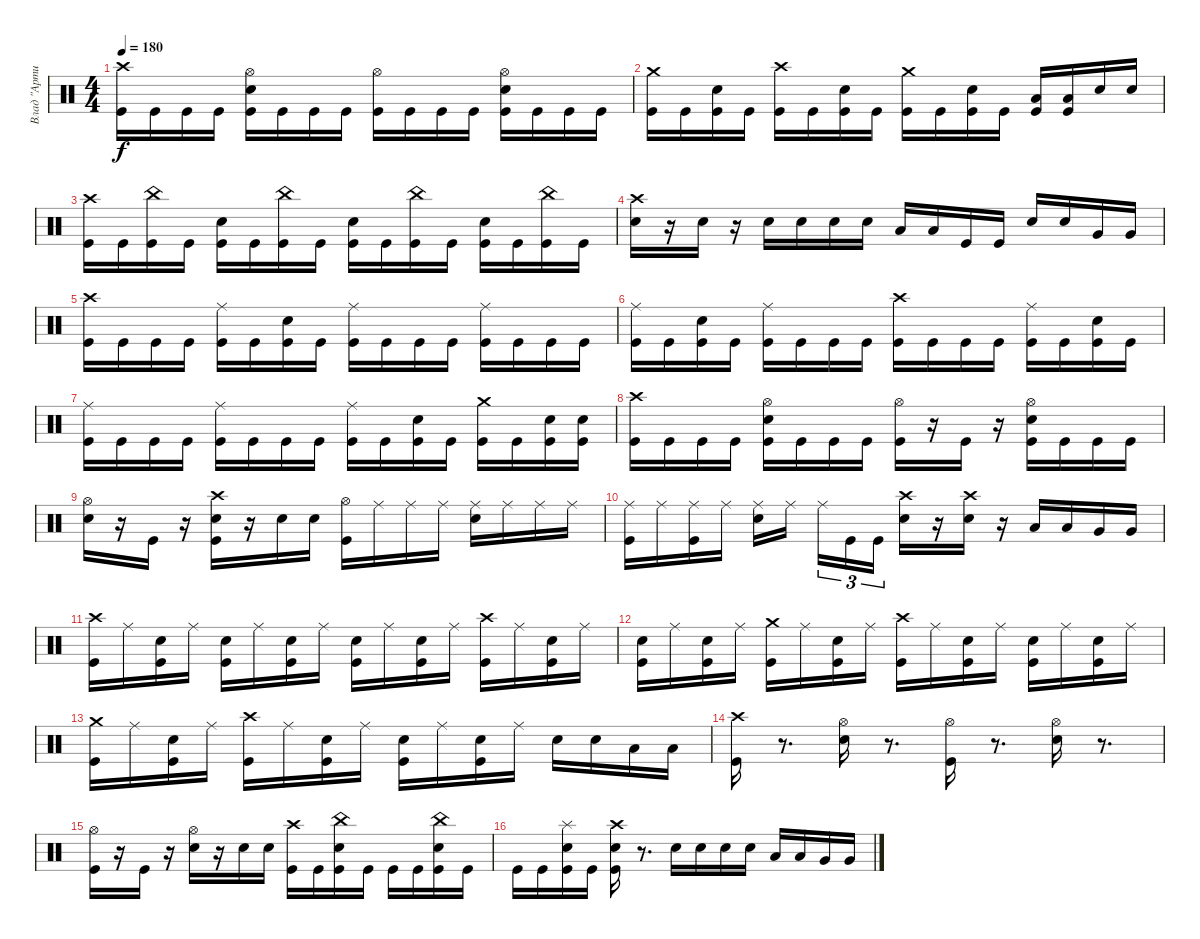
\track ("Влад \"Артист\"" "Влад \"Арти") {instrument percussion}
\staff {score}
\articulation defaults
\ts (4 4)
\tempo 180
\clef neutral
\ks c
("Crash high (hit)" "Kick (hit)").16{dy f} "Kick (hit)".16 "Kick (hit)".16 "Kick (hit)".16 ("Snare (hit) 2" "Hi-Hat (open)" "Kick (hit)").16 "Kick (hit)".16 "Kick (hit)".16 "Kick (hit)".16 ("Hi-Hat (open)" "Kick (hit)").16 "Kick (hit)".16 "Kick (hit)".16 "Kick (hit)".16 ("Snare (hit) 2" "Hi-Hat (open)" "Kick (hit)").16 "Kick (hit)".16 "Kick (hit)".16 "Kick (hit)".16 |
("Crash medium (hit)" "Kick (hit)").16 "Kick (hit)".16 ("Kick (hit)" "Snare (hit) 2").16 "Kick (hit)".16 ("Kick (hit)" "Crash high (hit)").16 "Kick (hit)".16 ("Kick (hit)" "Snare (hit) 2").16 "Kick (hit)".16 ("Crash medium (hit)" "Kick (hit)").16 "Kick (hit)".16 ("Kick (hit)" "Snare (hit) 2").16 "Kick (hit)".16 ("Low Tom (hit)" "Kick (hit)").16 ("Low Tom (hit)" "Kick (hit)").16 "Snare (hit) 2".16 "Snare (hit) 2".16 |
("Crash high (hit)" "Kick (hit)").16 "Kick (hit)".16 ("Kick (hit)" "China (hit)").16 "Kick (hit)".16 ("Snare (hit) 2" "Kick (hit)").16 "Kick (hit)".16 ("Kick (hit)" "China (hit)").16 "Kick (hit)".16 ("Snare (hit) 2" "Kick (hit)").16 "Kick (hit)".16 ("Kick (hit)" "China (hit)").16 "Kick (hit)".16 ("Snare (hit) 2" "Kick (hit)").16 "Kick (hit)".16 ("China (hit)" "Kick (hit)").16 "Kick (hit)".16 |
("Snare (hit) 2" "Crash high (hit)").16 r.16 "Snare (hit) 2".16 r.16 "Snare (hit) 2".16 "Snare (hit) 2".16 "Snare (hit) 2".16 "Snare (hit) 2".16 "Low Tom (hit)".16 "Low Tom (hit)".16 "Kick (hit)".16 "Kick (hit)".16 "Snare (hit) 2".16 "Snare (hit) 2".16 "Very Low Tom (hit)".16 "Very Low Tom (hit)".16 |
("Crash high (hit)" "Kick (hit)").16 "Kick (hit)".16 "Kick (hit)".16 "Kick (hit)".16 ("Ride (middle)" "Kick (hit)").16 "Kick (hit)".16 ("Kick (hit)" "Snare (hit) 2").16 "Kick (hit)".16 ("Ride (middle)" "Kick (hit)").16 "Kick (hit)".16 "Kick (hit)".16 "Kick (hit)".16 ("Ride (middle)" "Kick (hit)").16 "Kick (hit)".16 "Kick (hit)".16 "Kick (hit)".16 |
("Kick (hit)" "Ride (middle)").16 "Kick (hit)".16 ("Kick (hit)" "Snare (hit) 2").16 "Kick (hit)".16 ("Kick (hit)" "Ride (middle)").16 "Kick (hit)".16 "Kick (hit)".16 "Kick (hit)".16 ("Crash high (hit)" "Kick (hit)").16 "Kick (hit)".16 "Kick (hit)".16 "Kick (hit)".16 ("Ride (middle)" "Kick (hit)").16 "Kick (hit)".16 ("Kick (hit)" "Snare (hit) 2").16 "Kick (hit)".16 |
("Ride (middle)" "Kick (hit)").16 "Kick (hit)".16 "Kick (hit)".16 "Kick (hit)".16 ("Ride (middle)" "Kick (hit)").16 "Kick (hit)".16 "Kick (hit)".16 "Kick (hit)".16 ("Kick (hit)" "Ride (middle)").16 "Kick (hit)".16 ("Kick (hit)" "Snare (hit) 2").16 "Kick (hit)".16 ("Kick (hit)" "Crash medium (hit)").16 "Kick (hit)".16 ("Snare (hit) 2" "Kick (hit)").16 ("Snare (hit) 2" "Kick (hit)").16 |
("Kick (hit)" "Crash high (hit)").16 "Kick (hit)".16 "Kick (hit)".16 "Kick (hit)".16 ("Snare (hit) 2" "Kick (hit)" "Hi-Hat (open)").16 "Kick (hit)".16 "Kick (hit)".16 "Kick (hit)".16 ("Kick (hit)" "Hi-Hat (open)").16 r.16 "Kick (hit)".16 r.16 ("Snare (hit) 2" "Hi-Hat (open)" "Kick (hit)").16 "Kick (hit)".16 "Kick (hit)".16 "Kick (hit)".16 |
("Snare (hit) 2" "Hi-Hat (open)").16 r.16 "Kick (hit)".16 r.16 ("Crash high (hit)" "Kick (hit)" "Snare (hit) 2").16 r.16 "Snare (hit) 2".16 "Snare (hit) 2".16 ("Kick (hit)" "Hi-Hat (open)").16 "Ride (middle)".16 "Ride (middle)".16 "Ride (middle)".16 ("Snare (hit) 2" "Ride (middle)").16 "Ride (middle)".16 "Ride (middle)".16 "Ride (middle)".16 |
("Ride (middle)" "Kick (hit)").16 "Ride (middle)".16 ("Ride (middle)" "Kick (hit)").16 "Ride (middle)".16 ("Ride (middle)" "Snare (hit) 2").16 "Ride (middle)".16{beam splitsecondary} "Ride (middle)".16{tu (3 2)} "Kick (hit)".16{tu (3 2)} "Kick (hit)".16{tu (3 2)} ("Crash high (hit)" "Snare (hit) 2").16 r.16 ("Snare (hit) 2" "Crash high (hit)").16 r.16 "Low Tom (hit)".16 "Low Tom (hit)".16 "Very Low Tom (hit)".16 "Very Low Tom (hit)".16 |
("Crash high (hit)" "Kick (hit)").16 "Ride (middle)".16 ("Snare (hit) 2" "Kick (hit)").16 "Ride (middle)".16 ("Snare (hit) 2" "Kick (hit)").16 "Ride (middle)".16 ("Snare (hit) 2" "Kick (hit)").16 "Ride (middle)".16 ("Snare (hit) 2" "Kick (hit)").16 "Ride (middle)".16 ("Snare (hit) 2" "Kick (hit)").16 "Ride (middle)".16 ("Crash high (hit)" "Kick (hit)").16 "Ride (middle)".16 ("Kick (hit)" "Snare (hit) 2").16 "Ride (middle)".16 |
("Snare (hit) 2" "Kick (hit)").16 "Ride (middle)".16 ("Snare (hit) 2" "Kick (hit)").16 "Ride (middle)".16 ("Crash medium (hit)" "Kick (hit)").16 "Ride (middle)".16 ("Snare (hit) 2" "Kick (hit)").16 "Ride (middle)".16 ("Crash high (hit)" "Kick (hit)").16 "Ride (middle)".16 ("Snare (hit) 2" "Kick (hit)").16 "Ride (middle)".16 ("Snare (hit) 2" "Kick (hit)").16 "Ride (middle)".16 ("Snare (hit) 2" "Kick (hit)").16 "Ride (middle)".16 |
("Kick (hit)" "Crash medium (hit)").16 "Ride (middle)".16 ("Snare (hit) 2" "Kick (hit)").16 "Ride (middle)".16 ("Kick (hit)" "Crash high (hit)").16 "Ride (middle)".16 ("Kick (hit)" "Snare (hit) 2").16 "Ride (middle)".16 ("Snare (hit) 2" "Kick (hit)").16 "Ride (middle)".16 ("Snare (hit) 2" "Kick (hit)").16 "Ride (middle)".16 "Snare (hit) 2".16 "Snare (hit) 2".16 "Low Tom (hit)".16 "Low Tom (hit)".16 |
("Kick (hit)" "Crash high (hit)").16 r.8{d} ("Hi-Hat (open)" "Snare (hit) 2").16 r.8{d} ("Kick (hit)" "Hi-Hat (open)").16 r.8{d} ("Snare (hit) 2" "Hi-Hat (open)").16 r.8{d} |
("Hi-Hat (open)" "Kick (hit)").16 r.16 "Kick (hit)".16 r.16 ("Snare (hit) 2" "Hi-Hat (open)").16 r.16 "Snare (hit) 2".16 "Snare (hit) 2".16 ("Kick (hit)" "Crash high (hit)").16 "Kick (hit)".16 ("Snare (hit) 2" "Kick (hit)" "China (hit)").16 "Kick (hit)".16 "Kick (hit)".16 "Kick (hit)".16 ("Snare (hit) 2" "China (hit)" "Kick (hit)").16 "Kick (hit)".16 |
"Kick (hit)".16 "Kick (hit)".16 ("Splash (hit)" "Snare (hit) 2" "Kick (hit)").16 "Kick (hit)".16 ("Snare (hit) 2" "Crash high (hit)" "Kick (hit)").16 r.8{d} "Snare (hit) 2".16 "Snare (hit) 2".16 "Snare (hit) 2".16 "Snare (hit) 2".16 "Low Tom (hit)".16 "Low Tom (hit)".16 "Very Low Tom (hit)".16 "Very Low Tom (hit)".16
